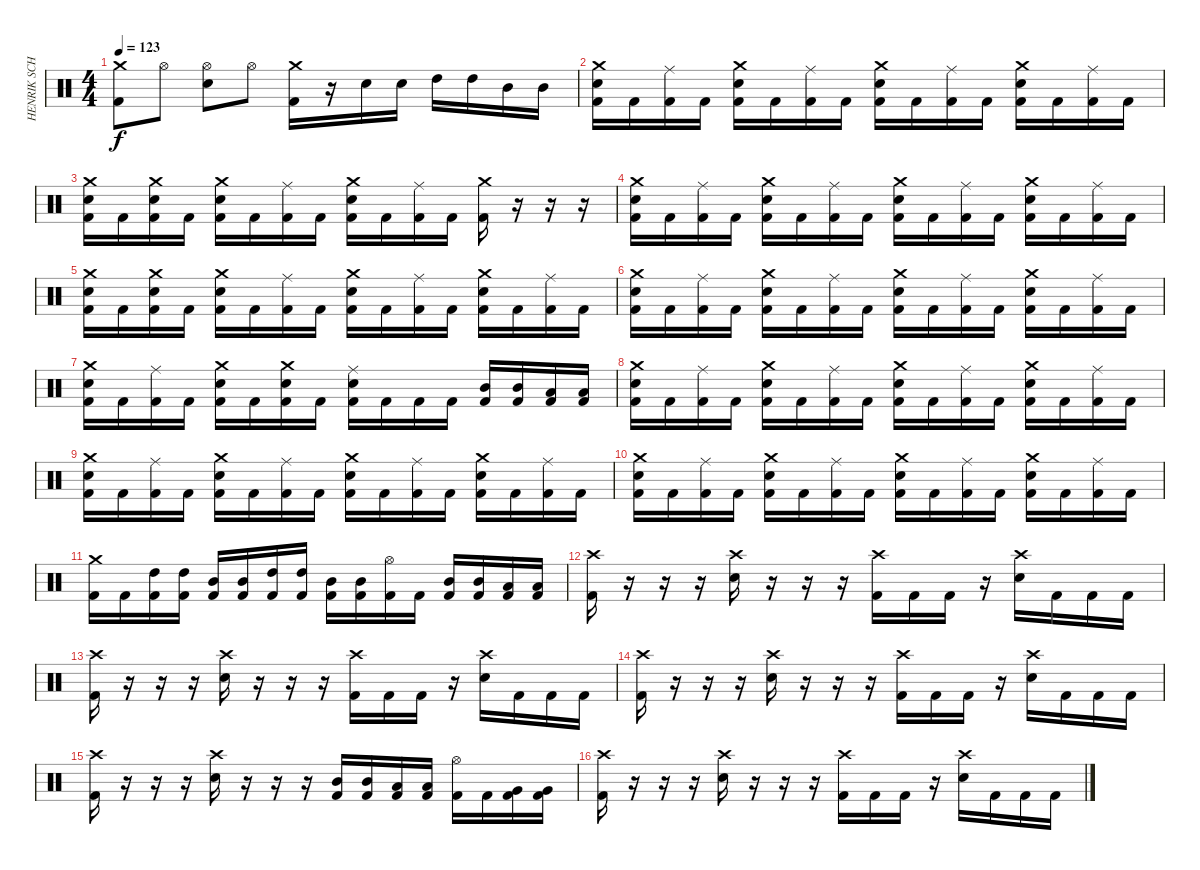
\track ("HENRIK SCHÖNSTÖM " "HENRIK SCH") {instrument percussion}
\staff {score}
\articulation defaults
\ts (4 4)
\tempo 123
\clef neutral
\ks c
("Crash medium (hit)" "Kick (hit) 2").8{dy f} "Hi-Hat (open)".8 ("Hi-Hat (open)" "Snare (hit) 2").8 "Hi-Hat (open)".8 ("Crash medium (hit)" "Kick (hit) 2").16 r.16 "Snare (hit) 2".16 "Snare (hit) 2".16 "High Tom (hit)".16 "High Tom (hit)".16 "Mid Tom (hit)".16 "Mid Tom (hit)".16 |
("Crash medium (hit)" "Snare (hit) 2" "Kick (hit) 2").16 "Kick (hit) 2".16 ("Ride (middle)" "Kick (hit) 2").16 "Kick (hit) 2".16 ("Crash medium (hit)" "Snare (hit) 2" "Kick (hit) 2").16 "Kick (hit) 2".16 ("Ride (middle)" "Kick (hit) 2").16 "Kick (hit) 2".16 ("Crash medium (hit)" "Snare (hit) 2" "Kick (hit) 2").16 "Kick (hit) 2".16 ("Ride (middle)" "Kick (hit) 2").16 "Kick (hit) 2".16 ("Crash medium (hit)" "Snare (hit) 2" "Kick (hit) 2").16 "Kick (hit) 2".16 ("Ride (middle)" "Kick (hit) 2").16 "Kick (hit) 2".16 |
("Crash medium (hit)" "Snare (hit) 2" "Kick (hit) 2").16 "Kick (hit) 2".16 ("Crash medium (hit)" "Snare (hit) 2" "Kick (hit) 2").16 "Kick (hit) 2".16 ("Crash medium (hit)" "Snare (hit) 2" "Kick (hit) 2").16 "Kick (hit) 2".16 ("Ride (middle)" "Kick (hit) 2").16 "Kick (hit) 2".16 ("Crash medium (hit)" "Snare (hit) 2" "Kick (hit) 2").16 "Kick (hit) 2".16 ("Ride (middle)" "Kick (hit) 2").16 "Kick (hit) 2".16 ("Crash medium (hit)" "Kick (hit) 2").16 r.16 r.16 r.16 |
("Crash medium (hit)" "Snare (hit) 2" "Kick (hit) 2").16 "Kick (hit) 2".16 ("Ride (middle)" "Kick (hit) 2").16 "Kick (hit) 2".16 ("Crash medium (hit)" "Snare (hit) 2" "Kick (hit) 2").16 "Kick (hit) 2".16 ("Ride (middle)" "Kick (hit) 2").16 "Kick (hit) 2".16 ("Crash medium (hit)" "Snare (hit) 2" "Kick (hit) 2").16 "Kick (hit) 2".16 ("Ride (middle)" "Kick (hit) 2").16 "Kick (hit) 2".16 ("Crash medium (hit)" "Snare (hit) 2" "Kick (hit) 2").16 "Kick (hit) 2".16 ("Ride (middle)" "Kick (hit) 2").16 "Kick (hit) 2".16 |
("Crash medium (hit)" "Snare (hit) 2" "Kick (hit) 2").16 "Kick (hit) 2".16 ("Crash medium (hit)" "Snare (hit) 2" "Kick (hit) 2").16 "Kick (hit) 2".16 ("Crash medium (hit)" "Snare (hit) 2" "Kick (hit) 2").16 "Kick (hit) 2".16 ("Ride (middle)" "Kick (hit) 2").16 "Kick (hit) 2".16 ("Crash medium (hit)" "Snare (hit) 2" "Kick (hit) 2").16 "Kick (hit) 2".16 ("Ride (middle)" "Kick (hit) 2").16 "Kick (hit) 2".16 ("Crash medium (hit)" "Snare (hit) 2" "Kick (hit) 2").16 "Kick (hit) 2".16 ("Ride (middle)" "Kick (hit) 2").16 "Kick (hit) 2".16 |
("Crash medium (hit)" "Snare (hit) 2" "Kick (hit) 2").16 "Kick (hit) 2".16 ("Ride (middle)" "Kick (hit) 2").16 "Kick (hit) 2".16 ("Crash medium (hit)" "Snare (hit) 2" "Kick (hit) 2").16 "Kick (hit) 2".16 ("Ride (middle)" "Kick (hit) 2").16 "Kick (hit) 2".16 ("Crash medium (hit)" "Snare (hit) 2" "Kick (hit) 2").16 "Kick (hit) 2".16 ("Ride (middle)" "Kick (hit) 2").16 "Kick (hit) 2".16 ("Crash medium (hit)" "Snare (hit) 2" "Kick (hit) 2").16 "Kick (hit) 2".16 ("Ride (middle)" "Kick (hit) 2").16 "Kick (hit) 2".16 |
("Crash medium (hit)" "Snare (hit) 2" "Kick (hit) 2").16 "Kick (hit) 2".16 ("Ride (middle)" "Kick (hit) 2").16 "Kick (hit) 2".16 ("Crash medium (hit)" "Snare (hit) 2" "Kick (hit) 2").16 "Kick (hit) 2".16 ("Crash medium (hit)" "Snare (hit) 2" "Kick (hit) 2").16 "Kick (hit) 2".16 ("Ride (middle)" "Snare (hit) 2" "Kick (hit) 2").16 "Kick (hit) 2".16 "Kick (hit) 2".16 "Kick (hit) 2".16 ("Mid Tom (hit)" "Kick (hit) 2").16 ("Mid Tom (hit)" "Kick (hit) 2").16 ("Low Tom (hit)" "Kick (hit) 2").16 ("Low Tom (hit)" "Kick (hit) 2").16 |
("Crash medium (hit)" "Snare (hit) 2" "Kick (hit) 2").16 "Kick (hit) 2".16 ("Ride (middle)" "Kick (hit) 2").16 "Kick (hit) 2".16 ("Crash medium (hit)" "Snare (hit) 2" "Kick (hit) 2").16 "Kick (hit) 2".16 ("Ride (middle)" "Kick (hit) 2").16 "Kick (hit) 2".16 ("Crash medium (hit)" "Snare (hit) 2" "Kick (hit) 2").16 "Kick (hit) 2".16 ("Ride (middle)" "Kick (hit) 2").16 "Kick (hit) 2".16 ("Crash medium (hit)" "Snare (hit) 2" "Kick (hit) 2").16 "Kick (hit) 2".16 ("Ride (middle)" "Kick (hit) 2").16 "Kick (hit) 2".16 |
("Crash medium (hit)" "Snare (hit) 2" "Kick (hit) 2").16 "Kick (hit) 2".16 ("Ride (middle)" "Kick (hit) 2").16 "Kick (hit) 2".16 ("Crash medium (hit)" "Snare (hit) 2" "Kick (hit) 2").16 "Kick (hit) 2".16 ("Ride (middle)" "Kick (hit) 2").16 "Kick (hit) 2".16 ("Crash medium (hit)" "Snare (hit) 2" "Kick (hit) 2").16 "Kick (hit) 2".16 ("Ride (middle)" "Kick (hit) 2").16 "Kick (hit) 2".16 ("Crash medium (hit)" "Snare (hit) 2" "Kick (hit) 2").16 "Kick (hit) 2".16 ("Ride (middle)" "Kick (hit) 2").16 "Kick (hit) 2".16 |
("Crash medium (hit)" "Snare (hit) 2" "Kick (hit) 2").16 "Kick (hit) 2".16 ("Ride (middle)" "Kick (hit) 2").16 "Kick (hit) 2".16 ("Crash medium (hit)" "Snare (hit) 2" "Kick (hit) 2").16 "Kick (hit) 2".16 ("Ride (middle)" "Kick (hit) 2").16 "Kick (hit) 2".16 ("Crash medium (hit)" "Snare (hit) 2" "Kick (hit) 2").16 "Kick (hit) 2".16 ("Ride (middle)" "Kick (hit) 2").16 "Kick (hit) 2".16 ("Crash medium (hit)" "Snare (hit) 2" "Kick (hit) 2").16 "Kick (hit) 2".16 ("Ride (middle)" "Kick (hit) 2").16 "Kick (hit) 2".16 |
("Crash medium (hit)" "Kick (hit) 2").16 "Kick (hit) 2".16 ("High Tom (hit)" "Kick (hit) 2").16 ("High Tom (hit)" "Kick (hit) 2").16 ("Mid Tom (hit)" "Kick (hit) 2").16 ("Mid Tom (hit)" "Kick (hit) 2").16 ("High Tom (hit)" "Kick (hit) 2").16 ("High Tom (hit)" "Kick (hit) 2").16 ("Mid Tom (hit)" "Kick (hit) 2").16 ("Mid Tom (hit)" "Kick (hit) 2").16 ("Hi-Hat (open)" "Kick (hit) 2").16 "Kick (hit) 2".16 ("Mid Tom (hit)" "Kick (hit) 2").16 ("Mid Tom (hit)" "Kick (hit) 2").16 ("Low Tom (hit)" "Kick (hit) 2").16 ("Low Tom (hit)" "Kick (hit) 2").16 |
("Crash high (hit)" "Kick (hit) 2").16 r.16 r.16 r.16 ("Crash high (hit)" "Snare (hit) 2").16 r.16 r.16 r.16 ("Crash high (hit)" "Kick (hit) 2").16 "Kick (hit) 2".16 "Kick (hit) 2".16 r.16 ("Crash high (hit)" "Snare (hit) 2").16 "Kick (hit) 2".16 "Kick (hit) 2".16 "Kick (hit) 2".16 |
("Crash high (hit)" "Kick (hit) 2").16 r.16 r.16 r.16 ("Crash high (hit)" "Snare (hit) 2").16 r.16 r.16 r.16 ("Crash high (hit)" "Kick (hit) 2").16 "Kick (hit) 2".16 "Kick (hit) 2".16 r.16 ("Crash high (hit)" "Snare (hit) 2").16 "Kick (hit) 2".16 "Kick (hit) 2".16 "Kick (hit) 2".16 |
("Crash high (hit)" "Kick (hit) 2").16 r.16 r.16 r.16 ("Crash high (hit)" "Snare (hit) 2").16 r.16 r.16 r.16 ("Crash high (hit)" "Kick (hit) 2").16 "Kick (hit) 2".16 "Kick (hit) 2".16 r.16 ("Crash high (hit)" "Snare (hit) 2").16 "Kick (hit) 2".16 "Kick (hit) 2".16 "Kick (hit) 2".16 |
("Crash high (hit)" "Kick (hit) 2").16 r.16 r.16 r.16 ("Crash high (hit)" "Snare (hit) 2").16 r.16 r.16 r.16 ("Mid Tom (hit)" "Kick (hit) 2").16 ("Mid Tom (hit)" "Kick (hit) 2").16 ("Low Tom (hit)" "Kick (hit) 2").16 ("Low Tom (hit)" "Kick (hit) 2").16 ("Hi-Hat (open)" "Kick (hit) 2").16 "Kick (hit) 2".16 ("Very Low Tom (hit)" "Kick (hit) 2").16 ("Very Low Tom (hit)" "Kick (hit) 2").16 |
("Crash high (hit)" "Kick (hit) 2").16 r.16 r.16 r.16 ("Crash high (hit)" "Snare (hit) 2").16 r.16 r.16 r.16 ("Crash high (hit)" "Kick (hit) 2").16 "Kick (hit) 2".16 "Kick (hit) 2".16 r.16 ("Crash high (hit)" "Snare (hit) 2").16 "Kick (hit) 2".16 "Kick (hit) 2".16 "Kick (hit) 2".16
